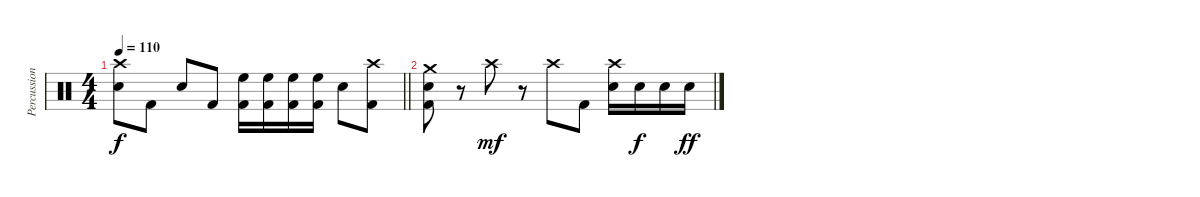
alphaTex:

\track ("Percussion" "Percussion") {instrument percussion}
\staff {score}
\articulation defaults
\ts (4 4)
\tempo 110
\clef neutral
\barLineRight lightlight
\ks c
("Electric Snare (hit)" "Crash high (hit)").8{dy f} "Kick (hit) 2".8 "Electric Snare (hit)".8 "Kick (hit) 2".8 ("Kick (hit) 2" "High Floor Tom (hit)").16 ("Kick (hit) 2" "High Floor Tom (hit)").16 ("Kick (hit) 2" "High Floor Tom (hit)").16 ("Kick (hit) 2" "High Floor Tom (hit)").16 "Electric Snare (hit)".8 ("Kick (hit) 2" "Crash high (hit)").8 |
("Kick (hit) 2" "Electric Snare (hit)" "Crash medium (hit)").8 r.8 "Crash high (hit)".8{dy mf} r.8 "Crash high (hit)".8 "Kick (hit) 2".8 ("Electric Snare (hit)" "Crash high (hit)").16 "Electric Snare (hit)".16{dy f} "Electric Snare (hit)".16 "Electric Snare (hit)".16{dy ff}
